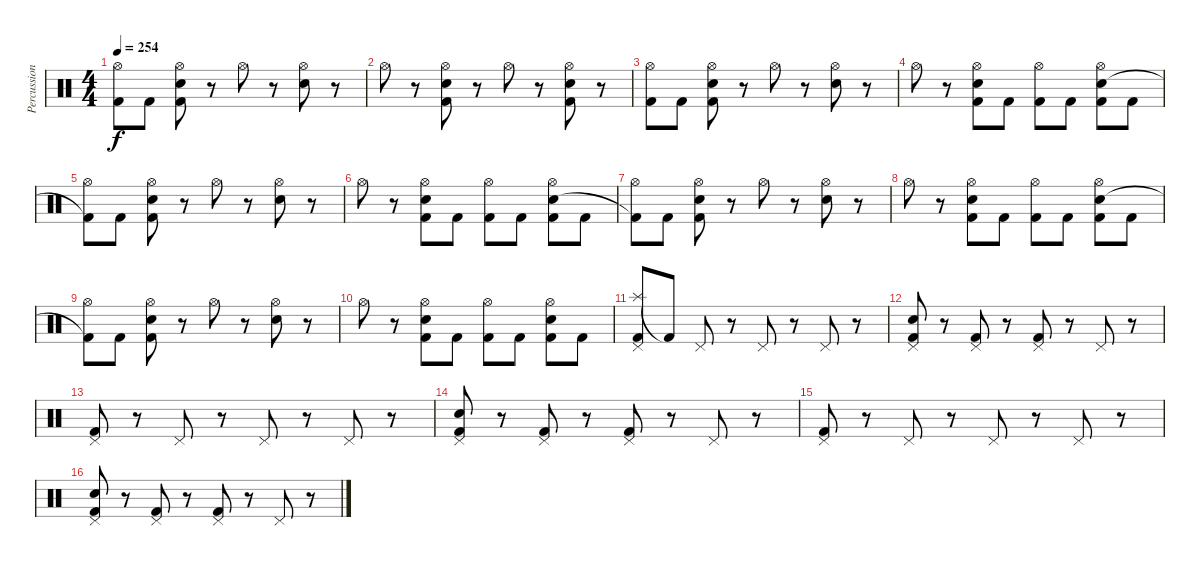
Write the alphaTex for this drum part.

\track ("Percussion" "Percussion") {instrument percussion}
\staff {score}
\articulation defaults
\ts (4 4)
\tempo 254
\clef neutral
\ks c
("Hi-Hat (open)" "Kick (hit) 2"{t}).8{dy f} "Kick (hit) 2".8 ("Hi-Hat (open)" "Electric Snare (hit)" "Kick (hit) 2").8 r.8 "Hi-Hat (open)".8 r.8 ("Hi-Hat (open)" "Electric Snare (hit)").8 r.8 |
"Hi-Hat (open)".8 r.8 ("Hi-Hat (open)" "Electric Snare (hit)" "Kick (hit) 2").8 r.8 "Hi-Hat (open)".8 r.8 ("Hi-Hat (open)" "Electric Snare (hit)" "Kick (hit) 2").8 r.8 |
("Hi-Hat (open)" "Kick (hit) 2").8 "Kick (hit) 2".8 ("Hi-Hat (open)" "Electric Snare (hit)" "Kick (hit) 2").8 r.8 "Hi-Hat (open)".8 r.8 ("Hi-Hat (open)" "Electric Snare (hit)").8 r.8 |
"Hi-Hat (open)".8 r.8 ("Hi-Hat (open)" "Electric Snare (hit)" "Kick (hit) 2").8 "Kick (hit) 2".8 ("Hi-Hat (open)" "Kick (hit) 2").8 "Kick (hit) 2".8 ("Hi-Hat (open)" "Electric Snare (hit)" "Kick (hit) 2").8 "Kick (hit) 2".8 |
("Hi-Hat (open)" "Kick (hit) 2"{t}).8 "Kick (hit) 2".8 ("Hi-Hat (open)" "Electric Snare (hit)" "Kick (hit) 2").8 r.8 "Hi-Hat (open)".8 r.8 ("Hi-Hat (open)" "Electric Snare (hit)").8 r.8 |
"Hi-Hat (open)".8 r.8 ("Hi-Hat (open)" "Electric Snare (hit)" "Kick (hit) 2").8 "Kick (hit) 2".8 ("Hi-Hat (open)" "Kick (hit) 2").8 "Kick (hit) 2".8 ("Hi-Hat (open)" "Electric Snare (hit)" "Kick (hit) 2").8 "Kick (hit) 2".8 |
("Hi-Hat (open)" "Kick (hit) 2"{t}).8 "Kick (hit) 2".8 ("Hi-Hat (open)" "Electric Snare (hit)" "Kick (hit) 2").8 r.8 "Hi-Hat (open)".8 r.8 ("Hi-Hat (open)" "Electric Snare (hit)").8 r.8 |
"Hi-Hat (open)".8 r.8 ("Hi-Hat (open)" "Electric Snare (hit)" "Kick (hit) 2").8 "Kick (hit) 2".8 ("Hi-Hat (open)" "Kick (hit) 2").8 "Kick (hit) 2".8 ("Hi-Hat (open)" "Electric Snare (hit)" "Kick (hit) 2").8 "Kick (hit) 2".8 |
("Hi-Hat (open)" "Kick (hit) 2"{t}).8 "Kick (hit) 2".8 ("Hi-Hat (open)" "Electric Snare (hit)" "Kick (hit) 2").8 r.8 "Hi-Hat (open)".8 r.8 ("Hi-Hat (open)" "Electric Snare (hit)").8 r.8 |
"Hi-Hat (open)".8 r.8 ("Hi-Hat (open)" "Electric Snare (hit)" "Kick (hit) 2").8 "Kick (hit) 2".8 ("Hi-Hat (open)" "Kick (hit) 2").8 "Kick (hit) 2".8 ("Hi-Hat (open)" "Electric Snare (hit)" "Kick (hit) 2").8 "Kick (hit) 2".8 |
("Splash (hit)" "Pedal Hi-Hat (hit)" "Kick (hit) 2").8 "Kick (hit) 2"{t}.8 "Pedal Hi-Hat (hit)".8 r.8 "Pedal Hi-Hat (hit)".8 r.8 "Pedal Hi-Hat (hit)".8 r.8 |
("Pedal Hi-Hat (hit)" "Electric Snare (hit)" "Kick (hit) 2").8 r.8 ("Pedal Hi-Hat (hit)" "Kick (hit) 2").8 r.8 ("Pedal Hi-Hat (hit)" "Kick (hit) 2").8 r.8 "Pedal Hi-Hat (hit)".8 r.8 |
("Pedal Hi-Hat (hit)" "Kick (hit) 2").8 r.8 "Pedal Hi-Hat (hit)".8 r.8 "Pedal Hi-Hat (hit)".8 r.8 "Pedal Hi-Hat (hit)".8 r.8 |
("Pedal Hi-Hat (hit)" "Electric Snare (hit)" "Kick (hit) 2").8 r.8 ("Pedal Hi-Hat (hit)" "Kick (hit) 2").8 r.8 ("Pedal Hi-Hat (hit)" "Kick (hit) 2").8 r.8 "Pedal Hi-Hat (hit)".8 r.8 |
("Pedal Hi-Hat (hit)" "Kick (hit) 2").8 r.8 "Pedal Hi-Hat (hit)".8 r.8 "Pedal Hi-Hat (hit)".8 r.8 "Pedal Hi-Hat (hit)".8 r.8 |
("Pedal Hi-Hat (hit)" "Electric Snare (hit)" "Kick (hit) 2").8 r.8 ("Pedal Hi-Hat (hit)" "Kick (hit) 2").8 r.8 ("Pedal Hi-Hat (hit)" "Kick (hit) 2").8 r.8 "Pedal Hi-Hat (hit)".8 r.8
